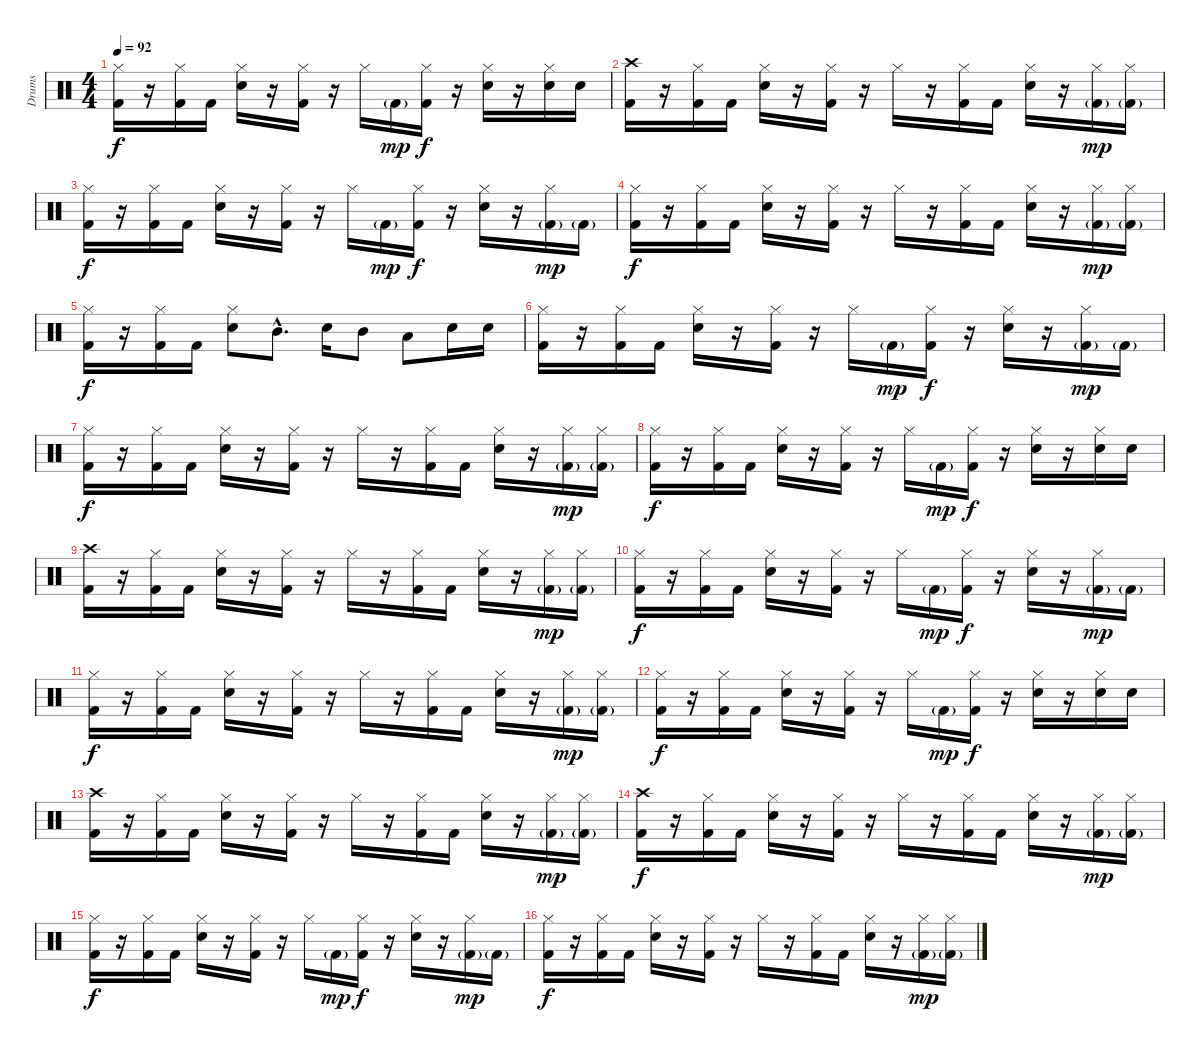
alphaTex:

\track ("Drums" "Drums") {instrument percussion}
\staff {score}
\articulation defaults
\ts (4 4)
\tempo 92
\clef neutral
\ks c
("Hi-Hat (closed)" "Kick (hit) 2").16{dy f} r.16 ("Hi-Hat (closed)" "Kick (hit) 2").16 "Kick (hit) 2".16 ("Hi-Hat (closed)" "Snare (hit) 2").16 r.16 ("Hi-Hat (closed)" "Kick (hit) 2").16 r.16 "Hi-Hat (closed)".16 "Kick (hit) 2"{g}.16{dy mp} ("Hi-Hat (closed)" "Kick (hit) 2").16{dy f} r.16 ("Hi-Hat (closed)" "Snare (hit) 2").16 r.16 ("Hi-Hat (closed)" "Snare (hit) 2").16 "Snare (hit) 2".16 |
("Crash high (hit)" "Kick (hit) 2").16 r.16 ("Hi-Hat (closed)" "Kick (hit) 2").16 "Kick (hit) 2".16 ("Hi-Hat (closed)" "Snare (hit) 2").16 r.16 ("Hi-Hat (closed)" "Kick (hit) 2").16 r.16 "Hi-Hat (closed)".16 r.16 ("Hi-Hat (closed)" "Kick (hit) 2").16 "Kick (hit) 2".16 ("Hi-Hat (closed)" "Snare (hit) 2").16 r.16 ("Hi-Hat (closed)" "Kick (hit) 2"{g}).16{dy mp} ("Hi-Hat (closed)" "Kick (hit) 2"{g}).16 |
("Hi-Hat (closed)" "Kick (hit) 2").16{dy f} r.16 ("Hi-Hat (closed)" "Kick (hit) 2").16 "Kick (hit) 2".16 ("Hi-Hat (closed)" "Snare (hit) 2").16 r.16 ("Hi-Hat (closed)" "Kick (hit) 2").16 r.16 "Hi-Hat (closed)".16 "Kick (hit) 2"{g}.16{dy mp} ("Hi-Hat (closed)" "Kick (hit) 2").16{dy f} r.16 ("Hi-Hat (closed)" "Snare (hit) 2").16 r.16 ("Hi-Hat (closed)" "Kick (hit) 2"{g}).16{dy mp} "Kick (hit) 2"{g}.16 |
("Hi-Hat (closed)" "Kick (hit) 2").16{dy f} r.16 ("Hi-Hat (closed)" "Kick (hit) 2").16 "Kick (hit) 2".16 ("Hi-Hat (closed)" "Snare (hit) 2").16 r.16 ("Hi-Hat (closed)" "Kick (hit) 2").16 r.16 "Hi-Hat (closed)".16 r.16 ("Hi-Hat (closed)" "Kick (hit) 2").16 "Kick (hit) 2".16 ("Hi-Hat (closed)" "Snare (hit) 2").16 r.16 ("Hi-Hat (closed)" "Kick (hit) 2"{g}).16{dy mp} ("Hi-Hat (closed)" "Kick (hit) 2"{g}).16 |
("Hi-Hat (closed)" "Kick (hit) 2").16{dy f} r.16 ("Hi-Hat (closed)" "Kick (hit) 2").16 "Kick (hit) 2".16 ("Hi-Hat (closed)" "Snare (hit) 2").8 "Mid Tom (hit)"{hac}.8{d} "Snare (hit) 2".16 "Mid Tom (hit)".8 "Low Tom (hit)".8 "Snare (hit) 2".16 "Snare (hit) 2".16 |
("Hi-Hat (closed)" "Kick (hit) 2").16 r.16 ("Hi-Hat (closed)" "Kick (hit) 2").16 "Kick (hit) 2".16 ("Hi-Hat (closed)" "Snare (hit) 2").16 r.16 ("Hi-Hat (closed)" "Kick (hit) 2").16 r.16 "Hi-Hat (closed)".16 "Kick (hit) 2"{g}.16{dy mp} ("Hi-Hat (closed)" "Kick (hit) 2").16{dy f} r.16 ("Hi-Hat (closed)" "Snare (hit) 2").16 r.16 ("Hi-Hat (closed)" "Kick (hit) 2"{g}).16{dy mp} "Kick (hit) 2"{g}.16 |
("Hi-Hat (closed)" "Kick (hit) 2").16{dy f} r.16 ("Hi-Hat (closed)" "Kick (hit) 2").16 "Kick (hit) 2".16 ("Hi-Hat (closed)" "Snare (hit) 2").16 r.16 ("Hi-Hat (closed)" "Kick (hit) 2").16 r.16 "Hi-Hat (closed)".16 r.16 ("Hi-Hat (closed)" "Kick (hit) 2").16 "Kick (hit) 2".16 ("Hi-Hat (closed)" "Snare (hit) 2").16 r.16 ("Hi-Hat (closed)" "Kick (hit) 2"{g}).16{dy mp} ("Hi-Hat (closed)" "Kick (hit) 2"{g}).16 |
("Hi-Hat (closed)" "Kick (hit) 2").16{dy f} r.16 ("Hi-Hat (closed)" "Kick (hit) 2").16 "Kick (hit) 2".16 ("Hi-Hat (closed)" "Snare (hit) 2").16 r.16 ("Hi-Hat (closed)" "Kick (hit) 2").16 r.16 "Hi-Hat (closed)".16 "Kick (hit) 2"{g}.16{dy mp} ("Hi-Hat (closed)" "Kick (hit) 2").16{dy f} r.16 ("Hi-Hat (closed)" "Snare (hit) 2").16 r.16 ("Hi-Hat (closed)" "Snare (hit) 2").16 "Snare (hit) 2".16 |
("Crash high (hit)" "Kick (hit) 2").16 r.16 ("Hi-Hat (closed)" "Kick (hit) 2").16 "Kick (hit) 2".16 ("Hi-Hat (closed)" "Snare (hit) 2").16 r.16 ("Hi-Hat (closed)" "Kick (hit) 2").16 r.16 "Hi-Hat (closed)".16 r.16 ("Hi-Hat (closed)" "Kick (hit) 2").16 "Kick (hit) 2".16 ("Hi-Hat (closed)" "Snare (hit) 2").16 r.16 ("Hi-Hat (closed)" "Kick (hit) 2"{g}).16{dy mp} ("Hi-Hat (closed)" "Kick (hit) 2"{g}).16 |
("Hi-Hat (closed)" "Kick (hit) 2").16{dy f} r.16 ("Hi-Hat (closed)" "Kick (hit) 2").16 "Kick (hit) 2".16 ("Hi-Hat (closed)" "Snare (hit) 2").16 r.16 ("Hi-Hat (closed)" "Kick (hit) 2").16 r.16 "Hi-Hat (closed)".16 "Kick (hit) 2"{g}.16{dy mp} ("Hi-Hat (closed)" "Kick (hit) 2").16{dy f} r.16 ("Hi-Hat (closed)" "Snare (hit) 2").16 r.16 ("Hi-Hat (closed)" "Kick (hit) 2"{g}).16{dy mp} "Kick (hit) 2"{g}.16 |
("Hi-Hat (closed)" "Kick (hit) 2").16{dy f} r.16 ("Hi-Hat (closed)" "Kick (hit) 2").16 "Kick (hit) 2".16 ("Hi-Hat (closed)" "Snare (hit) 2").16 r.16 ("Hi-Hat (closed)" "Kick (hit) 2").16 r.16 "Hi-Hat (closed)".16 r.16 ("Hi-Hat (closed)" "Kick (hit) 2").16 "Kick (hit) 2".16 ("Hi-Hat (closed)" "Snare (hit) 2").16 r.16 ("Hi-Hat (closed)" "Kick (hit) 2"{g}).16{dy mp} ("Hi-Hat (closed)" "Kick (hit) 2"{g}).16 |
("Hi-Hat (closed)" "Kick (hit) 2").16{dy f} r.16 ("Hi-Hat (closed)" "Kick (hit) 2").16 "Kick (hit) 2".16 ("Hi-Hat (closed)" "Snare (hit) 2").16 r.16 ("Hi-Hat (closed)" "Kick (hit) 2").16 r.16 "Hi-Hat (closed)".16 "Kick (hit) 2"{g}.16{dy mp} ("Hi-Hat (closed)" "Kick (hit) 2").16{dy f} r.16 ("Hi-Hat (closed)" "Snare (hit) 2").16 r.16 ("Hi-Hat (closed)" "Snare (hit) 2").16 "Snare (hit) 2".16 |
("Crash high (hit)" "Kick (hit) 2").16 r.16 ("Hi-Hat (closed)" "Kick (hit) 2").16 "Kick (hit) 2".16 ("Hi-Hat (closed)" "Snare (hit) 2").16 r.16 ("Hi-Hat (closed)" "Kick (hit) 2").16 r.16 "Hi-Hat (closed)".16 r.16 ("Hi-Hat (closed)" "Kick (hit) 2").16 "Kick (hit) 2".16 ("Hi-Hat (closed)" "Snare (hit) 2").16 r.16 ("Hi-Hat (closed)" "Kick (hit) 2"{g}).16{dy mp} ("Hi-Hat (closed)" "Kick (hit) 2"{g}).16 |
("Crash high (hit)" "Kick (hit) 2").16{dy f} r.16 ("Hi-Hat (closed)" "Kick (hit) 2").16 "Kick (hit) 2".16 ("Hi-Hat (closed)" "Snare (hit) 2").16 r.16 ("Hi-Hat (closed)" "Kick (hit) 2").16 r.16 "Hi-Hat (closed)".16 r.16 ("Hi-Hat (closed)" "Kick (hit) 2").16 "Kick (hit) 2".16 ("Hi-Hat (closed)" "Snare (hit) 2").16 r.16 ("Hi-Hat (closed)" "Kick (hit) 2"{g}).16{dy mp} ("Hi-Hat (closed)" "Kick (hit) 2"{g}).16 |
("Hi-Hat (closed)" "Kick (hit) 2").16{dy f} r.16 ("Hi-Hat (closed)" "Kick (hit) 2").16 "Kick (hit) 2".16 ("Hi-Hat (closed)" "Snare (hit) 2").16 r.16 ("Hi-Hat (closed)" "Kick (hit) 2").16 r.16 "Hi-Hat (closed)".16 "Kick (hit) 2"{g}.16{dy mp} ("Hi-Hat (closed)" "Kick (hit) 2").16{dy f} r.16 ("Hi-Hat (closed)" "Snare (hit) 2").16 r.16 ("Hi-Hat (closed)" "Kick (hit) 2"{g}).16{dy mp} "Kick (hit) 2"{g}.16 |
("Hi-Hat (closed)" "Kick (hit) 2").16{dy f} r.16 ("Hi-Hat (closed)" "Kick (hit) 2").16 "Kick (hit) 2".16 ("Hi-Hat (closed)" "Snare (hit) 2").16 r.16 ("Hi-Hat (closed)" "Kick (hit) 2").16 r.16 "Hi-Hat (closed)".16 r.16 ("Hi-Hat (closed)" "Kick (hit) 2").16 "Kick (hit) 2".16 ("Hi-Hat (closed)" "Snare (hit) 2").16 r.16 ("Hi-Hat (closed)" "Kick (hit) 2"{g}).16{dy mp} ("Hi-Hat (closed)" "Kick (hit) 2"{g}).16
